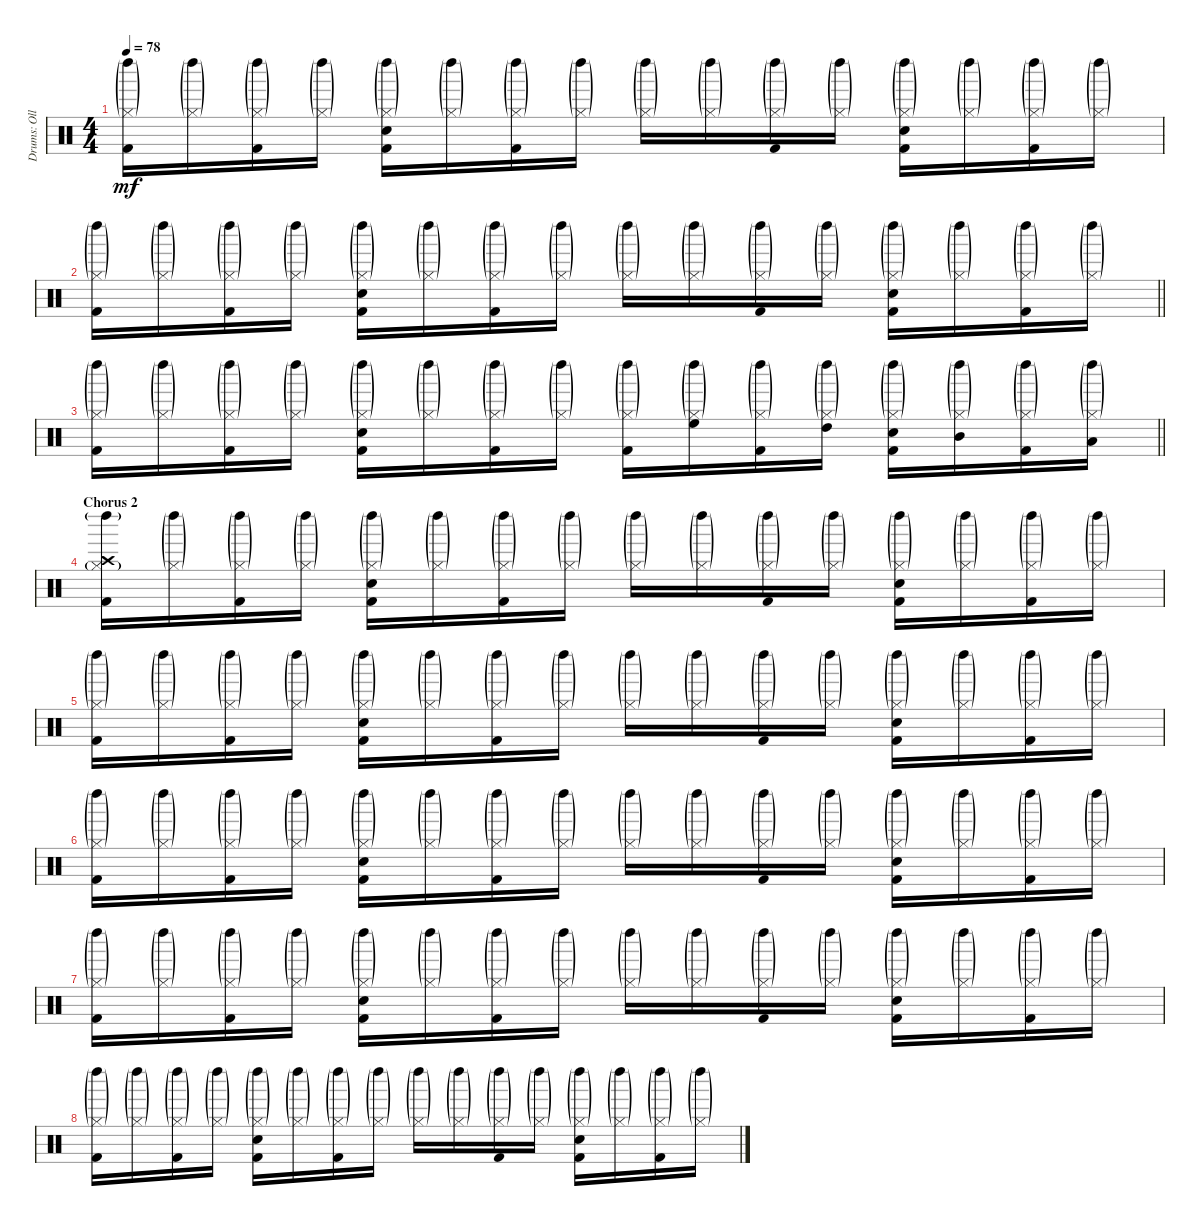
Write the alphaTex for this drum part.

\track ("Drums: Olle Romeo" "Drums: Oll") {instrument percussion}
\staff {score}
\articulation defaults
\ts (4 4)
\tempo 78
\clef neutral
\ks c
("Hi-Hat (closed)"{g} "Kick (hit) 2" "Left Maraca (hit)"{g}).16{dy mf} ("Hi-Hat (closed)"{g} "Left Maraca (hit)"{g}).16 ("Hi-Hat (closed)"{g} "Kick (hit) 2" "Left Maraca (hit)"{g}).16 ("Hi-Hat (closed)"{g} "Left Maraca (hit)"{g}).16 ("Hi-Hat (closed)"{g} "Snare (hit) 2" "Kick (hit) 2" "Left Maraca (hit)"{g}).16 ("Hi-Hat (closed)"{g} "Left Maraca (hit)"{g}).16 ("Hi-Hat (closed)"{g} "Kick (hit) 2" "Left Maraca (hit)"{g}).16 ("Hi-Hat (closed)"{g} "Left Maraca (hit)"{g}).16 ("Hi-Hat (closed)"{g} "Left Maraca (hit)"{g}).16 ("Hi-Hat (closed)"{g} "Left Maraca (hit)"{g}).16 ("Hi-Hat (closed)"{g} "Kick (hit) 2" "Left Maraca (hit)"{g}).16 ("Hi-Hat (closed)"{g} "Left Maraca (hit)"{g}).16 ("Hi-Hat (closed)"{g} "Snare (hit) 2" "Kick (hit) 2" "Left Maraca (hit)"{g}).16 ("Hi-Hat (closed)"{g} "Left Maraca (hit)"{g}).16 ("Hi-Hat (closed)"{g} "Kick (hit) 2" "Left Maraca (hit)"{g}).16 ("Hi-Hat (closed)"{g} "Left Maraca (hit)"{g}).16 |
\barLineRight lightlight
("Hi-Hat (closed)"{g} "Kick (hit) 2" "Left Maraca (hit)"{g}).16 ("Hi-Hat (closed)"{g} "Left Maraca (hit)"{g}).16 ("Hi-Hat (closed)"{g} "Kick (hit) 2" "Left Maraca (hit)"{g}).16 ("Hi-Hat (closed)"{g} "Left Maraca (hit)"{g}).16 ("Hi-Hat (closed)"{g} "Snare (hit) 2" "Kick (hit) 2" "Left Maraca (hit)"{g}).16 ("Hi-Hat (closed)"{g} "Left Maraca (hit)"{g}).16 ("Hi-Hat (closed)"{g} "Kick (hit) 2" "Left Maraca (hit)"{g}).16 ("Hi-Hat (closed)"{g} "Left Maraca (hit)"{g}).16 ("Hi-Hat (closed)"{g} "Left Maraca (hit)"{g}).16 ("Hi-Hat (closed)"{g} "Left Maraca (hit)"{g}).16 ("Hi-Hat (closed)"{g} "Kick (hit) 2" "Left Maraca (hit)"{g}).16 ("Hi-Hat (closed)"{g} "Left Maraca (hit)"{g}).16 ("Hi-Hat (closed)"{g} "Snare (hit) 2" "Kick (hit) 2" "Left Maraca (hit)"{g}).16 ("Hi-Hat (closed)"{g} "Left Maraca (hit)"{g}).16 ("Hi-Hat (closed)"{g} "Kick (hit) 2" "Left Maraca (hit)"{g}).16 ("Hi-Hat (closed)"{g} "Left Maraca (hit)"{g}).16 |
\barLineRight lightlight
("Hi-Hat (closed)"{g} "Kick (hit) 2" "Left Maraca (hit)"{g}).16 ("Hi-Hat (closed)"{g} "Left Maraca (hit)"{g}).16 ("Hi-Hat (closed)"{g} "Kick (hit) 2" "Left Maraca (hit)"{g}).16 ("Hi-Hat (closed)"{g} "Left Maraca (hit)"{g}).16 ("Hi-Hat (closed)"{g} "Snare (hit) 2" "Kick (hit) 2" "Left Maraca (hit)"{g}).16 ("Hi-Hat (closed)"{g} "Left Maraca (hit)"{g}).16 ("Hi-Hat (closed)"{g} "Kick (hit) 2" "Left Maraca (hit)"{g}).16 ("Hi-Hat (closed)"{g} "Left Maraca (hit)"{g}).16 ("Hi-Hat (closed)"{g} "Kick (hit) 2" "Left Maraca (hit)"{g}).16 ("Hi-Hat (closed)"{g} "High Floor Tom (hit)" "Left Maraca (hit)"{g}).16 ("Hi-Hat (closed)"{g} "Kick (hit) 2" "Left Maraca (hit)"{g}).16 ("Hi-Hat (closed)"{g} "High Tom (hit)" "Left Maraca (hit)"{g}).16 ("Hi-Hat (closed)"{g} "Snare (hit) 2" "Kick (hit) 2" "Left Maraca (hit)"{g}).16 ("Hi-Hat (closed)"{g} "Mid Tom (hit)" "Left Maraca (hit)"{g}).16 ("Hi-Hat (closed)"{g} "Kick (hit) 2" "Left Maraca (hit)"{g}).16 ("Hi-Hat (closed)"{g} "Low Tom (hit)" "Left Maraca (hit)"{g}).16 |
\section ("" "Chorus 2")
("Crash high (hit)" "Hi-Hat (closed)"{g} "Kick (hit) 2" "Left Maraca (hit)"{g}).16 ("Hi-Hat (closed)"{g} "Left Maraca (hit)"{g}).16 ("Hi-Hat (closed)"{g} "Kick (hit) 2" "Left Maraca (hit)"{g}).16 ("Hi-Hat (closed)"{g} "Left Maraca (hit)"{g}).16 ("Hi-Hat (closed)"{g} "Snare (hit) 2" "Kick (hit) 2" "Left Maraca (hit)"{g}).16 ("Hi-Hat (closed)"{g} "Left Maraca (hit)"{g}).16 ("Hi-Hat (closed)"{g} "Kick (hit) 2" "Left Maraca (hit)"{g}).16 ("Hi-Hat (closed)"{g} "Left Maraca (hit)"{g}).16 ("Hi-Hat (closed)"{g} "Left Maraca (hit)"{g}).16 ("Hi-Hat (closed)"{g} "Left Maraca (hit)"{g}).16 ("Hi-Hat (closed)"{g} "Kick (hit) 2" "Left Maraca (hit)"{g}).16 ("Hi-Hat (closed)"{g} "Left Maraca (hit)"{g}).16 ("Hi-Hat (closed)"{g} "Snare (hit) 2" "Kick (hit) 2" "Left Maraca (hit)"{g}).16 ("Hi-Hat (closed)"{g} "Left Maraca (hit)"{g}).16 ("Hi-Hat (closed)"{g} "Kick (hit) 2" "Left Maraca (hit)"{g}).16 ("Hi-Hat (closed)"{g} "Left Maraca (hit)"{g}).16 |
("Hi-Hat (closed)"{g} "Kick (hit) 2" "Left Maraca (hit)"{g}).16 ("Hi-Hat (closed)"{g} "Left Maraca (hit)"{g}).16 ("Hi-Hat (closed)"{g} "Kick (hit) 2" "Left Maraca (hit)"{g}).16 ("Hi-Hat (closed)"{g} "Left Maraca (hit)"{g}).16 ("Hi-Hat (closed)"{g} "Snare (hit) 2" "Kick (hit) 2" "Left Maraca (hit)"{g}).16 ("Hi-Hat (closed)"{g} "Left Maraca (hit)"{g}).16 ("Hi-Hat (closed)"{g} "Kick (hit) 2" "Left Maraca (hit)"{g}).16 ("Hi-Hat (closed)"{g} "Left Maraca (hit)"{g}).16 ("Hi-Hat (closed)"{g} "Left Maraca (hit)"{g}).16 ("Hi-Hat (closed)"{g} "Left Maraca (hit)"{g}).16 ("Hi-Hat (closed)"{g} "Kick (hit) 2" "Left Maraca (hit)"{g}).16 ("Hi-Hat (closed)"{g} "Left Maraca (hit)"{g}).16 ("Hi-Hat (closed)"{g} "Snare (hit) 2" "Kick (hit) 2" "Left Maraca (hit)"{g}).16 ("Hi-Hat (closed)"{g} "Left Maraca (hit)"{g}).16 ("Hi-Hat (closed)"{g} "Kick (hit) 2" "Left Maraca (hit)"{g}).16 ("Hi-Hat (closed)"{g} "Left Maraca (hit)"{g}).16 |
("Hi-Hat (closed)"{g} "Kick (hit) 2" "Left Maraca (hit)"{g}).16 ("Hi-Hat (closed)"{g} "Left Maraca (hit)"{g}).16 ("Hi-Hat (closed)"{g} "Kick (hit) 2" "Left Maraca (hit)"{g}).16 ("Hi-Hat (closed)"{g} "Left Maraca (hit)"{g}).16 ("Hi-Hat (closed)"{g} "Snare (hit) 2" "Kick (hit) 2" "Left Maraca (hit)"{g}).16 ("Hi-Hat (closed)"{g} "Left Maraca (hit)"{g}).16 ("Hi-Hat (closed)"{g} "Kick (hit) 2" "Left Maraca (hit)"{g}).16 ("Hi-Hat (closed)"{g} "Left Maraca (hit)"{g}).16 ("Hi-Hat (closed)"{g} "Left Maraca (hit)"{g}).16 ("Hi-Hat (closed)"{g} "Left Maraca (hit)"{g}).16 ("Hi-Hat (closed)"{g} "Kick (hit) 2" "Left Maraca (hit)"{g}).16 ("Hi-Hat (closed)"{g} "Left Maraca (hit)"{g}).16 ("Hi-Hat (closed)"{g} "Snare (hit) 2" "Kick (hit) 2" "Left Maraca (hit)"{g}).16 ("Hi-Hat (closed)"{g} "Left Maraca (hit)"{g}).16 ("Hi-Hat (closed)"{g} "Kick (hit) 2" "Left Maraca (hit)"{g}).16 ("Hi-Hat (closed)"{g} "Left Maraca (hit)"{g}).16 |
("Hi-Hat (closed)"{g} "Kick (hit) 2" "Left Maraca (hit)"{g}).16 ("Hi-Hat (closed)"{g} "Left Maraca (hit)"{g}).16 ("Hi-Hat (closed)"{g} "Kick (hit) 2" "Left Maraca (hit)"{g}).16 ("Hi-Hat (closed)"{g} "Left Maraca (hit)"{g}).16 ("Hi-Hat (closed)"{g} "Snare (hit) 2" "Kick (hit) 2" "Left Maraca (hit)"{g}).16 ("Hi-Hat (closed)"{g} "Left Maraca (hit)"{g}).16 ("Hi-Hat (closed)"{g} "Kick (hit) 2" "Left Maraca (hit)"{g}).16 ("Hi-Hat (closed)"{g} "Left Maraca (hit)"{g}).16 ("Hi-Hat (closed)"{g} "Left Maraca (hit)"{g}).16 ("Hi-Hat (closed)"{g} "Left Maraca (hit)"{g}).16 ("Hi-Hat (closed)"{g} "Kick (hit) 2" "Left Maraca (hit)"{g}).16 ("Hi-Hat (closed)"{g} "Left Maraca (hit)"{g}).16 ("Hi-Hat (closed)"{g} "Snare (hit) 2" "Kick (hit) 2" "Left Maraca (hit)"{g}).16 ("Hi-Hat (closed)"{g} "Left Maraca (hit)"{g}).16 ("Hi-Hat (closed)"{g} "Kick (hit) 2" "Left Maraca (hit)"{g}).16 ("Hi-Hat (closed)"{g} "Left Maraca (hit)"{g}).16 |
("Hi-Hat (closed)"{g} "Kick (hit) 2" "Left Maraca (hit)"{g}).16 ("Hi-Hat (closed)"{g} "Left Maraca (hit)"{g}).16 ("Hi-Hat (closed)"{g} "Kick (hit) 2" "Left Maraca (hit)"{g}).16 ("Hi-Hat (closed)"{g} "Left Maraca (hit)"{g}).16 ("Hi-Hat (closed)"{g} "Snare (hit) 2" "Kick (hit) 2" "Left Maraca (hit)"{g}).16 ("Hi-Hat (closed)"{g} "Left Maraca (hit)"{g}).16 ("Hi-Hat (closed)"{g} "Kick (hit) 2" "Left Maraca (hit)"{g}).16 ("Hi-Hat (closed)"{g} "Left Maraca (hit)"{g}).16 ("Hi-Hat (closed)"{g} "Left Maraca (hit)"{g}).16 ("Hi-Hat (closed)"{g} "Left Maraca (hit)"{g}).16 ("Hi-Hat (closed)"{g} "Kick (hit) 2" "Left Maraca (hit)"{g}).16 ("Hi-Hat (closed)"{g} "Left Maraca (hit)"{g}).16 ("Hi-Hat (closed)"{g} "Snare (hit) 2" "Kick (hit) 2" "Left Maraca (hit)"{g}).16 ("Hi-Hat (closed)"{g} "Left Maraca (hit)"{g}).16 ("Hi-Hat (closed)"{g} "Kick (hit) 2" "Left Maraca (hit)"{g}).16 ("Hi-Hat (closed)"{g} "Left Maraca (hit)"{g}).16
